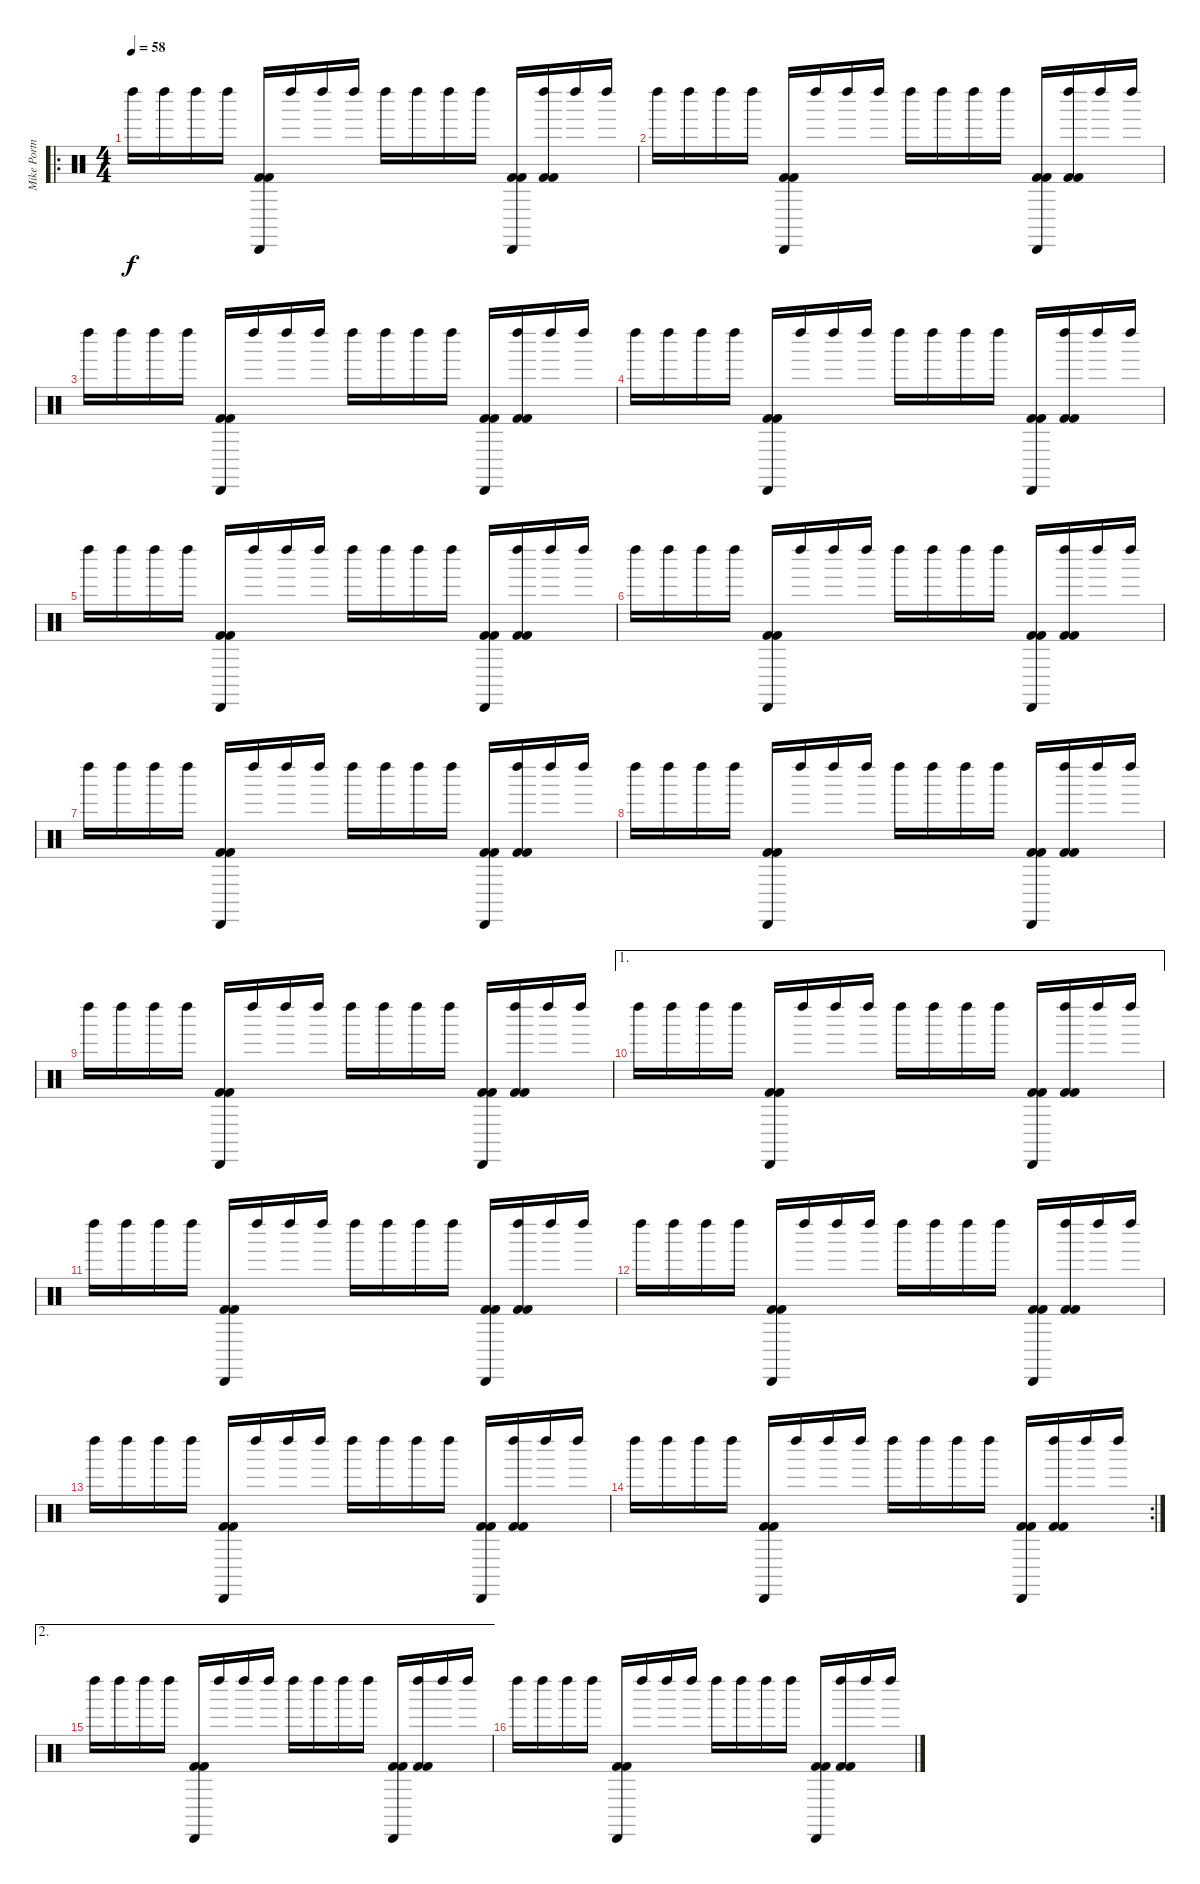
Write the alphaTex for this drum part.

\track ("Mike Portnoy - Drum" "Mike Portn") {instrument percussion}
\staff {score}
\articulation defaults
\ro
\ts (4 4)
\tempo 58
\clef neutral
\ks c "Left Maraca (hit)".16{dy f} "Left Maraca (hit)".16 "Left Maraca (hit)".16 "Left Maraca (hit)".16
("Cabasa (hit)" "Kick (hit) 2" "Kick (hit) 2").16 "Left Maraca (hit)".16 "Left Maraca (hit)".16 "Left Maraca (hit)".16 "Left Maraca (hit)".16 "Left Maraca (hit)".16 "Left Maraca (hit)".16 "Left Maraca (hit)".16 ("Cabasa (hit)" "Kick (hit) 2" "Kick (hit) 2").16 ("Left Maraca (hit)" "Kick (hit) 2" "Kick (hit) 2").16 "Left Maraca (hit)".16 "Left Maraca (hit)".16 |
"Left Maraca (hit)".16 "Left Maraca (hit)".16 "Left Maraca (hit)".16 "Left Maraca (hit)".16 ("Cabasa (hit)" "Kick (hit) 2" "Kick (hit) 2").16 "Left Maraca (hit)".16 "Left Maraca (hit)".16 "Left Maraca (hit)".16 "Left Maraca (hit)".16 "Left Maraca (hit)".16 "Left Maraca (hit)".16 "Left Maraca (hit)".16 ("Cabasa (hit)" "Kick (hit) 2" "Kick (hit) 2").16 ("Left Maraca (hit)" "Kick (hit) 2" "Kick (hit) 2").16 "Left Maraca (hit)".16 "Left Maraca (hit)".16 |
"Left Maraca (hit)".16 "Left Maraca (hit)".16 "Left Maraca (hit)".16 "Left Maraca (hit)".16 ("Cabasa (hit)" "Kick (hit) 2" "Kick (hit) 2").16 "Left Maraca (hit)".16 "Left Maraca (hit)".16 "Left Maraca (hit)".16 "Left Maraca (hit)".16 "Left Maraca (hit)".16 "Left Maraca (hit)".16 "Left Maraca (hit)".16 ("Cabasa (hit)" "Kick (hit) 2" "Kick (hit) 2").16 ("Left Maraca (hit)" "Kick (hit) 2" "Kick (hit) 2").16 "Left Maraca (hit)".16 "Left Maraca (hit)".16 |
"Left Maraca (hit)".16 "Left Maraca (hit)".16 "Left Maraca (hit)".16 "Left Maraca (hit)".16 ("Cabasa (hit)" "Kick (hit) 2" "Kick (hit) 2").16 "Left Maraca (hit)".16 "Left Maraca (hit)".16 "Left Maraca (hit)".16 "Left Maraca (hit)".16 "Left Maraca (hit)".16 "Left Maraca (hit)".16 "Left Maraca (hit)".16 ("Cabasa (hit)" "Kick (hit) 2" "Kick (hit) 2").16 ("Left Maraca (hit)" "Kick (hit) 2" "Kick (hit) 2").16 "Left Maraca (hit)".16 "Left Maraca (hit)".16 |
"Left Maraca (hit)".16 "Left Maraca (hit)".16 "Left Maraca (hit)".16 "Left Maraca (hit)".16 ("Cabasa (hit)" "Kick (hit) 2" "Kick (hit) 2").16 "Left Maraca (hit)".16 "Left Maraca (hit)".16 "Left Maraca (hit)".16 "Left Maraca (hit)".16 "Left Maraca (hit)".16 "Left Maraca (hit)".16 "Left Maraca (hit)".16 ("Cabasa (hit)" "Kick (hit) 2" "Kick (hit) 2").16 ("Left Maraca (hit)" "Kick (hit) 2" "Kick (hit) 2").16 "Left Maraca (hit)".16 "Left Maraca (hit)".16 |
"Left Maraca (hit)".16 "Left Maraca (hit)".16 "Left Maraca (hit)".16 "Left Maraca (hit)".16 ("Cabasa (hit)" "Kick (hit) 2" "Kick (hit) 2").16 "Left Maraca (hit)".16 "Left Maraca (hit)".16 "Left Maraca (hit)".16 "Left Maraca (hit)".16 "Left Maraca (hit)".16 "Left Maraca (hit)".16 "Left Maraca (hit)".16 ("Cabasa (hit)" "Kick (hit) 2" "Kick (hit) 2").16 ("Left Maraca (hit)" "Kick (hit) 2" "Kick (hit) 2").16 "Left Maraca (hit)".16 "Left Maraca (hit)".16 |
"Left Maraca (hit)".16 "Left Maraca (hit)".16 "Left Maraca (hit)".16 "Left Maraca (hit)".16 ("Cabasa (hit)" "Kick (hit) 2" "Kick (hit) 2").16 "Left Maraca (hit)".16 "Left Maraca (hit)".16 "Left Maraca (hit)".16 "Left Maraca (hit)".16 "Left Maraca (hit)".16 "Left Maraca (hit)".16 "Left Maraca (hit)".16 ("Cabasa (hit)" "Kick (hit) 2" "Kick (hit) 2").16 ("Left Maraca (hit)" "Kick (hit) 2" "Kick (hit) 2").16 "Left Maraca (hit)".16 "Left Maraca (hit)".16 |
"Left Maraca (hit)".16 "Left Maraca (hit)".16 "Left Maraca (hit)".16 "Left Maraca (hit)".16 ("Cabasa (hit)" "Kick (hit) 2" "Kick (hit) 2").16 "Left Maraca (hit)".16 "Left Maraca (hit)".16 "Left Maraca (hit)".16 "Left Maraca (hit)".16 "Left Maraca (hit)".16 "Left Maraca (hit)".16 "Left Maraca (hit)".16 ("Cabasa (hit)" "Kick (hit) 2" "Kick (hit) 2").16 ("Left Maraca (hit)" "Kick (hit) 2" "Kick (hit) 2").16 "Left Maraca (hit)".16 "Left Maraca (hit)".16 |
"Left Maraca (hit)".16 "Left Maraca (hit)".16 "Left Maraca (hit)".16 "Left Maraca (hit)".16 ("Cabasa (hit)" "Kick (hit) 2" "Kick (hit) 2").16 "Left Maraca (hit)".16 "Left Maraca (hit)".16 "Left Maraca (hit)".16 "Left Maraca (hit)".16 "Left Maraca (hit)".16 "Left Maraca (hit)".16 "Left Maraca (hit)".16 ("Cabasa (hit)" "Kick (hit) 2" "Kick (hit) 2").16 ("Left Maraca (hit)" "Kick (hit) 2" "Kick (hit) 2").16 "Left Maraca (hit)".16 "Left Maraca (hit)".16 |
\ae 1 "Left Maraca (hit)".16 "Left Maraca (hit)".16 "Left Maraca (hit)".16 "Left Maraca (hit)".16
("Cabasa (hit)" "Kick (hit) 2" "Kick (hit) 2").16 "Left Maraca (hit)".16 "Left Maraca (hit)".16 "Left Maraca (hit)".16 "Left Maraca (hit)".16 "Left Maraca (hit)".16 "Left Maraca (hit)".16 "Left Maraca (hit)".16 ("Cabasa (hit)" "Kick (hit) 2" "Kick (hit) 2").16 ("Left Maraca (hit)" "Kick (hit) 2" "Kick (hit) 2").16 "Left Maraca (hit)".16 "Left Maraca (hit)".16 |
"Left Maraca (hit)".16 "Left Maraca (hit)".16 "Left Maraca (hit)".16 "Left Maraca (hit)".16 ("Cabasa (hit)" "Kick (hit) 2" "Kick (hit) 2").16 "Left Maraca (hit)".16 "Left Maraca (hit)".16 "Left Maraca (hit)".16 "Left Maraca (hit)".16 "Left Maraca (hit)".16 "Left Maraca (hit)".16 "Left Maraca (hit)".16 ("Cabasa (hit)" "Kick (hit) 2" "Kick (hit) 2").16 ("Left Maraca (hit)" "Kick (hit) 2" "Kick (hit) 2").16 "Left Maraca (hit)".16 "Left Maraca (hit)".16 |
"Left Maraca (hit)".16 "Left Maraca (hit)".16 "Left Maraca (hit)".16 "Left Maraca (hit)".16 ("Cabasa (hit)" "Kick (hit) 2" "Kick (hit) 2").16 "Left Maraca (hit)".16 "Left Maraca (hit)".16 "Left Maraca (hit)".16 "Left Maraca (hit)".16 "Left Maraca (hit)".16 "Left Maraca (hit)".16 "Left Maraca (hit)".16 ("Cabasa (hit)" "Kick (hit) 2" "Kick (hit) 2").16 ("Left Maraca (hit)" "Kick (hit) 2" "Kick (hit) 2").16 "Left Maraca (hit)".16 "Left Maraca (hit)".16 |
"Left Maraca (hit)".16 "Left Maraca (hit)".16 "Left Maraca (hit)".16 "Left Maraca (hit)".16 ("Cabasa (hit)" "Kick (hit) 2" "Kick (hit) 2").16 "Left Maraca (hit)".16 "Left Maraca (hit)".16 "Left Maraca (hit)".16 "Left Maraca (hit)".16 "Left Maraca (hit)".16 "Left Maraca (hit)".16 "Left Maraca (hit)".16 ("Cabasa (hit)" "Kick (hit) 2" "Kick (hit) 2").16 ("Left Maraca (hit)" "Kick (hit) 2" "Kick (hit) 2").16 "Left Maraca (hit)".16 "Left Maraca (hit)".16 |
\rc 2 "Left Maraca (hit)".16 "Left Maraca (hit)".16 "Left Maraca (hit)".16 "Left Maraca (hit)".16
("Cabasa (hit)" "Kick (hit) 2" "Kick (hit) 2").16 "Left Maraca (hit)".16 "Left Maraca (hit)".16 "Left Maraca (hit)".16 "Left Maraca (hit)".16 "Left Maraca (hit)".16 "Left Maraca (hit)".16 "Left Maraca (hit)".16 ("Cabasa (hit)" "Kick (hit) 2" "Kick (hit) 2").16 ("Left Maraca (hit)" "Kick (hit) 2" "Kick (hit) 2").16 "Left Maraca (hit)".16 "Left Maraca (hit)".16 |
\ae 2 "Left Maraca (hit)".16 "Left Maraca (hit)".16 "Left Maraca (hit)".16 "Left Maraca (hit)".16
("Cabasa (hit)" "Kick (hit) 2" "Kick (hit) 2").16 "Left Maraca (hit)".16 "Left Maraca (hit)".16 "Left Maraca (hit)".16 "Left Maraca (hit)".16 "Left Maraca (hit)".16 "Left Maraca (hit)".16 "Left Maraca (hit)".16 ("Cabasa (hit)" "Kick (hit) 2" "Kick (hit) 2").16 ("Left Maraca (hit)" "Kick (hit) 2" "Kick (hit) 2").16 "Left Maraca (hit)".16 "Left Maraca (hit)".16 |
"Left Maraca (hit)".16 "Left Maraca (hit)".16 "Left Maraca (hit)".16 "Left Maraca (hit)".16 ("Cabasa (hit)" "Kick (hit) 2" "Kick (hit) 2").16 "Left Maraca (hit)".16 "Left Maraca (hit)".16 "Left Maraca (hit)".16 "Left Maraca (hit)".16 "Left Maraca (hit)".16 "Left Maraca (hit)".16 "Left Maraca (hit)".16 ("Cabasa (hit)" "Kick (hit) 2" "Kick (hit) 2").16 ("Left Maraca (hit)" "Kick (hit) 2" "Kick (hit) 2").16 "Left Maraca (hit)".16 "Left Maraca (hit)".16
